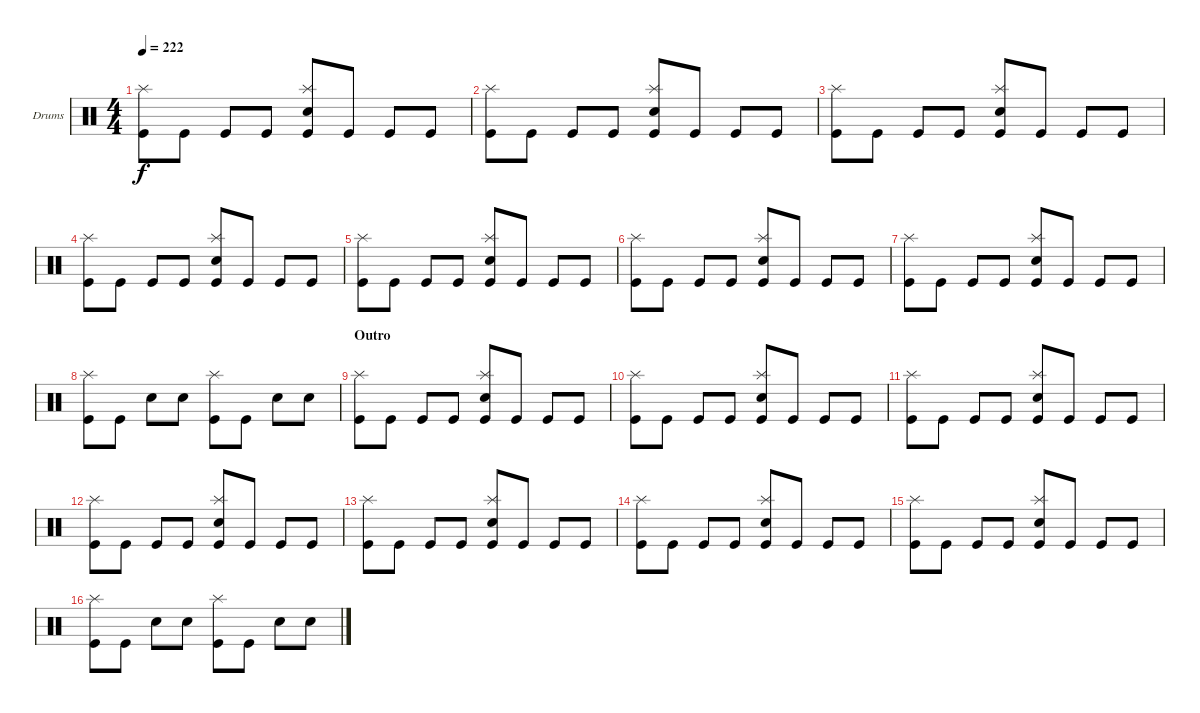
\defaultSystemsLayout 4
\bracketExtendMode groupsimilarinstruments
\firstSystemTrackNameOrientation horizontal
\otherSystemsTrackNameOrientation horizontal
\track ("Drumkit" "Drums") {mute instrument percussion}
\staff {score}
\articulation defaults
\ts (4 4)
\tempo 222
\clef neutral
\ks c
("Kick (hit)" "Splash (hit)").8{dy f} "Kick (hit)".8 "Kick (hit)".8 "Kick (hit)".8 ("Kick (hit)" "Splash (hit)" "Snare (hit) 2").8 "Kick (hit)".8 "Kick (hit)".8 "Kick (hit)".8 |
("Kick (hit)" "Splash (hit)").8 "Kick (hit)".8 "Kick (hit)".8 "Kick (hit)".8 ("Kick (hit)" "Splash (hit)" "Snare (hit) 2").8 "Kick (hit)".8 "Kick (hit)".8 "Kick (hit)".8 |
("Kick (hit)" "Splash (hit)").8 "Kick (hit)".8 "Kick (hit)".8 "Kick (hit)".8 ("Kick (hit)" "Splash (hit)" "Snare (hit) 2").8 "Kick (hit)".8 "Kick (hit)".8 "Kick (hit)".8 |
("Kick (hit)" "Splash (hit)").8 "Kick (hit)".8 "Kick (hit)".8 "Kick (hit)".8 ("Kick (hit)" "Splash (hit)" "Snare (hit) 2").8 "Kick (hit)".8 "Kick (hit)".8 "Kick (hit)".8 |
("Kick (hit)" "Splash (hit)").8 "Kick (hit)".8 "Kick (hit)".8 "Kick (hit)".8 ("Kick (hit)" "Splash (hit)" "Snare (hit) 2").8 "Kick (hit)".8 "Kick (hit)".8 "Kick (hit)".8 |
("Kick (hit)" "Splash (hit)").8 "Kick (hit)".8 "Kick (hit)".8 "Kick (hit)".8 ("Kick (hit)" "Splash (hit)" "Snare (hit) 2").8 "Kick (hit)".8 "Kick (hit)".8 "Kick (hit)".8 |
("Kick (hit)" "Splash (hit)").8 "Kick (hit)".8 "Kick (hit)".8 "Kick (hit)".8 ("Kick (hit)" "Splash (hit)" "Snare (hit) 2").8 "Kick (hit)".8 "Kick (hit)".8 "Kick (hit)".8 |
("Kick (hit)" "Splash (hit)").8 "Kick (hit)".8 "Snare (hit) 2".8 "Snare (hit) 2".8 ("Kick (hit)" "Splash (hit)").8 "Kick (hit)".8 "Snare (hit) 2".8 "Snare (hit) 2".8 |
\section ("" "Outro")
("Kick (hit)" "Splash (hit)").8 "Kick (hit)".8 "Kick (hit)".8 "Kick (hit)".8 ("Kick (hit)" "Splash (hit)" "Snare (hit) 2").8 "Kick (hit)".8 "Kick (hit)".8 "Kick (hit)".8 |
("Kick (hit)" "Splash (hit)").8 "Kick (hit)".8 "Kick (hit)".8 "Kick (hit)".8 ("Kick (hit)" "Splash (hit)" "Snare (hit) 2").8 "Kick (hit)".8 "Kick (hit)".8 "Kick (hit)".8 |
("Kick (hit)" "Splash (hit)").8 "Kick (hit)".8 "Kick (hit)".8 "Kick (hit)".8 ("Kick (hit)" "Splash (hit)" "Snare (hit) 2").8 "Kick (hit)".8 "Kick (hit)".8 "Kick (hit)".8 |
("Kick (hit)" "Splash (hit)").8 "Kick (hit)".8 "Kick (hit)".8 "Kick (hit)".8 ("Kick (hit)" "Splash (hit)" "Snare (hit) 2").8 "Kick (hit)".8 "Kick (hit)".8 "Kick (hit)".8 |
("Kick (hit)" "Splash (hit)").8 "Kick (hit)".8 "Kick (hit)".8 "Kick (hit)".8 ("Kick (hit)" "Splash (hit)" "Snare (hit) 2").8 "Kick (hit)".8 "Kick (hit)".8 "Kick (hit)".8 |
("Kick (hit)" "Splash (hit)").8 "Kick (hit)".8 "Kick (hit)".8 "Kick (hit)".8 ("Kick (hit)" "Splash (hit)" "Snare (hit) 2").8 "Kick (hit)".8 "Kick (hit)".8 "Kick (hit)".8 |
("Kick (hit)" "Splash (hit)").8 "Kick (hit)".8 "Kick (hit)".8 "Kick (hit)".8 ("Kick (hit)" "Splash (hit)" "Snare (hit) 2").8 "Kick (hit)".8 "Kick (hit)".8 "Kick (hit)".8 |
("Kick (hit)" "Splash (hit)").8 "Kick (hit)".8 "Snare (hit) 2".8 "Snare (hit) 2".8 ("Kick (hit)" "Splash (hit)").8 "Kick (hit)".8 "Snare (hit) 2".8 "Snare (hit) 2".8
